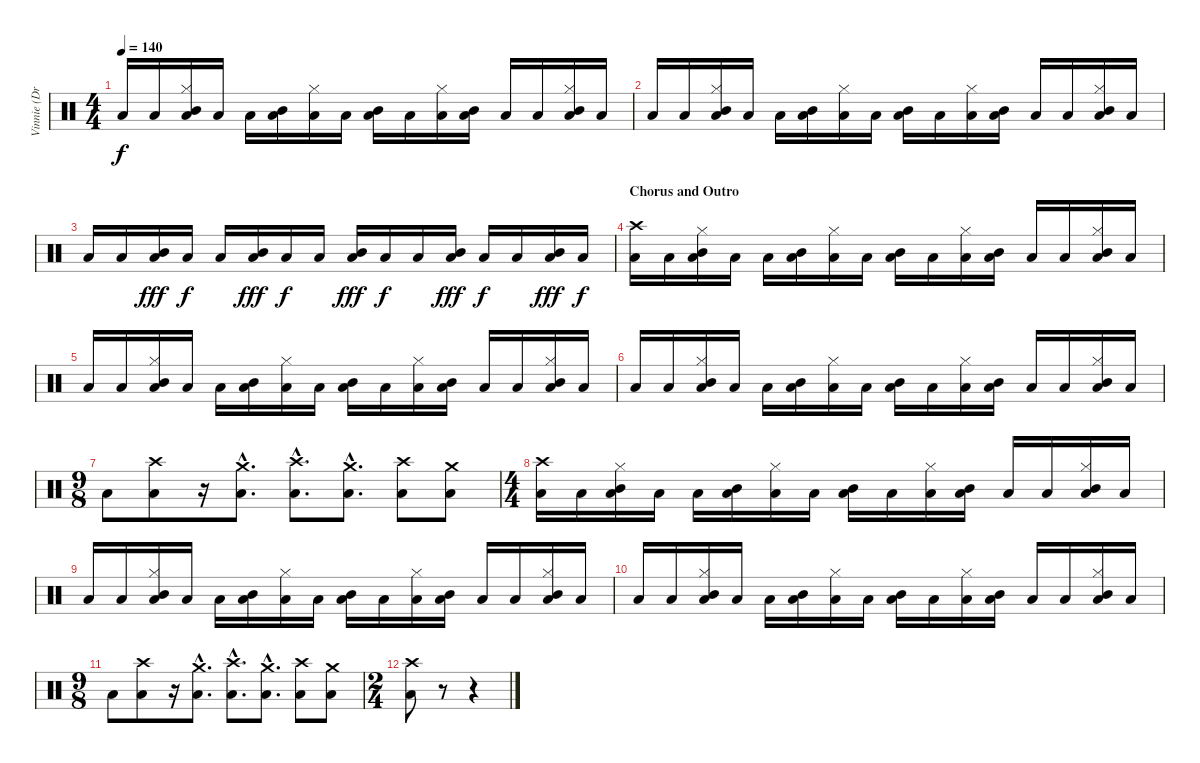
\track ("Vinnie (Drums)" "Vinnie (Dr") {instrument percussion}
\staff {score}
\articulation defaults
\ts (4 4)
\tempo 140
\clef neutral
\ks c "Low Floor Tom (hit)".16{dy f} "Low Floor Tom (hit)".16
("Hi-Hat (closed)" "Mid Tom (hit)" "Low Floor Tom (hit)").16 "Low Floor Tom (hit)".16 "Low Floor Tom (hit)".16 ("Mid Tom (hit)" "Low Floor Tom (hit)").16 ("Hi-Hat (closed)" "Low Floor Tom (hit)").16 "Low Floor Tom (hit)".16 ("Mid Tom (hit)" "Low Floor Tom (hit)").16 "Low Floor Tom (hit)".16 ("Hi-Hat (closed)" "Low Floor Tom (hit)").16 ("Mid Tom (hit)" "Low Floor Tom (hit)").16 "Low Floor Tom (hit)".16 "Low Floor Tom (hit)".16 ("Hi-Hat (closed)" "Mid Tom (hit)" "Low Floor Tom (hit)").16 "Low Floor Tom (hit)".16 |
"Low Floor Tom (hit)".16 "Low Floor Tom (hit)".16 ("Hi-Hat (closed)" "Mid Tom (hit)" "Low Floor Tom (hit)").16 "Low Floor Tom (hit)".16 "Low Floor Tom (hit)".16 ("Mid Tom (hit)" "Low Floor Tom (hit)").16 ("Hi-Hat (closed)" "Low Floor Tom (hit)").16 "Low Floor Tom (hit)".16 ("Mid Tom (hit)" "Low Floor Tom (hit)").16 "Low Floor Tom (hit)".16 ("Hi-Hat (closed)" "Low Floor Tom (hit)").16 ("Mid Tom (hit)" "Low Floor Tom (hit)").16 "Low Floor Tom (hit)".16 "Low Floor Tom (hit)".16 ("Hi-Hat (closed)" "Mid Tom (hit)" "Low Floor Tom (hit)").16 "Low Floor Tom (hit)".16 |
"Low Floor Tom (hit)".16 "Low Floor Tom (hit)".16 ("Mid Tom (hit)" "Low Floor Tom (hit)").16{dy fff} "Low Floor Tom (hit)".16{dy f} "Low Floor Tom (hit)".16 ("Mid Tom (hit)" "Low Floor Tom (hit)").16{dy fff} "Low Floor Tom (hit)".16{dy f} "Low Floor Tom (hit)".16 ("Mid Tom (hit)" "Low Floor Tom (hit)").16{dy fff} "Low Floor Tom (hit)".16{dy f} "Low Floor Tom (hit)".16 ("Mid Tom (hit)" "Low Floor Tom (hit)").16{dy fff} "Low Floor Tom (hit)".16{dy f} "Low Floor Tom (hit)".16 ("Mid Tom (hit)" "Low Floor Tom (hit)").16{dy fff} "Low Floor Tom (hit)".16{dy f} |
\section ("" "Chorus and Outro")
("Crash high (hit)" "Low Floor Tom (hit)").16 "Low Floor Tom (hit)".16 ("Hi-Hat (closed)" "Mid Tom (hit)" "Low Floor Tom (hit)").16 "Low Floor Tom (hit)".16 "Low Floor Tom (hit)".16 ("Mid Tom (hit)" "Low Floor Tom (hit)").16 ("Hi-Hat (closed)" "Low Floor Tom (hit)").16 "Low Floor Tom (hit)".16 ("Mid Tom (hit)" "Low Floor Tom (hit)").16 "Low Floor Tom (hit)".16 ("Hi-Hat (closed)" "Low Floor Tom (hit)").16 ("Mid Tom (hit)" "Low Floor Tom (hit)").16 "Low Floor Tom (hit)".16 "Low Floor Tom (hit)".16 ("Hi-Hat (closed)" "Mid Tom (hit)" "Low Floor Tom (hit)").16 "Low Floor Tom (hit)".16 |
"Low Floor Tom (hit)".16 "Low Floor Tom (hit)".16 ("Hi-Hat (closed)" "Mid Tom (hit)" "Low Floor Tom (hit)").16 "Low Floor Tom (hit)".16 "Low Floor Tom (hit)".16 ("Mid Tom (hit)" "Low Floor Tom (hit)").16 ("Hi-Hat (closed)" "Low Floor Tom (hit)").16 "Low Floor Tom (hit)".16 ("Mid Tom (hit)" "Low Floor Tom (hit)").16 "Low Floor Tom (hit)".16 ("Hi-Hat (closed)" "Low Floor Tom (hit)").16 ("Mid Tom (hit)" "Low Floor Tom (hit)").16 "Low Floor Tom (hit)".16 "Low Floor Tom (hit)".16 ("Hi-Hat (closed)" "Mid Tom (hit)" "Low Floor Tom (hit)").16 "Low Floor Tom (hit)".16 |
"Low Floor Tom (hit)".16 "Low Floor Tom (hit)".16 ("Hi-Hat (closed)" "Mid Tom (hit)" "Low Floor Tom (hit)").16 "Low Floor Tom (hit)".16 "Low Floor Tom (hit)".16 ("Mid Tom (hit)" "Low Floor Tom (hit)").16 ("Hi-Hat (closed)" "Low Floor Tom (hit)").16 "Low Floor Tom (hit)".16 ("Mid Tom (hit)" "Low Floor Tom (hit)").16 "Low Floor Tom (hit)".16 ("Hi-Hat (closed)" "Low Floor Tom (hit)").16 ("Mid Tom (hit)" "Low Floor Tom (hit)").16 "Low Floor Tom (hit)".16 "Low Floor Tom (hit)".16 ("Hi-Hat (closed)" "Mid Tom (hit)" "Low Floor Tom (hit)").16 "Low Floor Tom (hit)".16 |
\ts (9 8)
"Low Floor Tom (hit)".8 ("Crash high (hit)" "Low Floor Tom (hit)").8 r.16 ("Crash medium (hit)"{hac} "Low Floor Tom (hit)"{hac}).8{d} ("Crash high (hit)"{hac} "Low Floor Tom (hit)"{hac}).8{d} ("Crash medium (hit)"{hac} "Low Floor Tom (hit)"{hac}).8{d} ("Crash high (hit)" "Low Floor Tom (hit)").8 ("Crash medium (hit)" "Low Floor Tom (hit)").8 |
\ts (4 4)
("Crash high (hit)" "Low Floor Tom (hit)").16 "Low Floor Tom (hit)".16 ("Hi-Hat (closed)" "Mid Tom (hit)" "Low Floor Tom (hit)").16 "Low Floor Tom (hit)".16 "Low Floor Tom (hit)".16 ("Mid Tom (hit)" "Low Floor Tom (hit)").16 ("Hi-Hat (closed)" "Low Floor Tom (hit)").16 "Low Floor Tom (hit)".16 ("Mid Tom (hit)" "Low Floor Tom (hit)").16 "Low Floor Tom (hit)".16 ("Hi-Hat (closed)" "Low Floor Tom (hit)").16 ("Mid Tom (hit)" "Low Floor Tom (hit)").16 "Low Floor Tom (hit)".16 "Low Floor Tom (hit)".16 ("Hi-Hat (closed)" "Mid Tom (hit)" "Low Floor Tom (hit)").16 "Low Floor Tom (hit)".16 |
"Low Floor Tom (hit)".16 "Low Floor Tom (hit)".16 ("Hi-Hat (closed)" "Mid Tom (hit)" "Low Floor Tom (hit)").16 "Low Floor Tom (hit)".16 "Low Floor Tom (hit)".16 ("Mid Tom (hit)" "Low Floor Tom (hit)").16 ("Hi-Hat (closed)" "Low Floor Tom (hit)").16 "Low Floor Tom (hit)".16 ("Mid Tom (hit)" "Low Floor Tom (hit)").16 "Low Floor Tom (hit)".16 ("Hi-Hat (closed)" "Low Floor Tom (hit)").16 ("Mid Tom (hit)" "Low Floor Tom (hit)").16 "Low Floor Tom (hit)".16 "Low Floor Tom (hit)".16 ("Hi-Hat (closed)" "Mid Tom (hit)" "Low Floor Tom (hit)").16 "Low Floor Tom (hit)".16 |
"Low Floor Tom (hit)".16 "Low Floor Tom (hit)".16 ("Hi-Hat (closed)" "Mid Tom (hit)" "Low Floor Tom (hit)").16 "Low Floor Tom (hit)".16 "Low Floor Tom (hit)".16 ("Mid Tom (hit)" "Low Floor Tom (hit)").16 ("Hi-Hat (closed)" "Low Floor Tom (hit)").16 "Low Floor Tom (hit)".16 ("Mid Tom (hit)" "Low Floor Tom (hit)").16 "Low Floor Tom (hit)".16 ("Hi-Hat (closed)" "Low Floor Tom (hit)").16 ("Mid Tom (hit)" "Low Floor Tom (hit)").16 "Low Floor Tom (hit)".16 "Low Floor Tom (hit)".16 ("Hi-Hat (closed)" "Mid Tom (hit)" "Low Floor Tom (hit)").16 "Low Floor Tom (hit)".16 |
\ts (9 8)
"Low Floor Tom (hit)".8 ("Crash high (hit)" "Low Floor Tom (hit)").8 r.16 ("Crash medium (hit)"{hac} "Low Floor Tom (hit)"{hac}).8{d} ("Crash high (hit)"{hac} "Low Floor Tom (hit)"{hac}).8{d} ("Crash medium (hit)"{hac} "Low Floor Tom (hit)"{hac}).8{d} ("Crash high (hit)" "Low Floor Tom (hit)").8 ("Crash medium (hit)" "Low Floor Tom (hit)").8 |
\ts (2 4)
("Crash high (hit)" "Low Floor Tom (hit)").8 r.8 r.4
